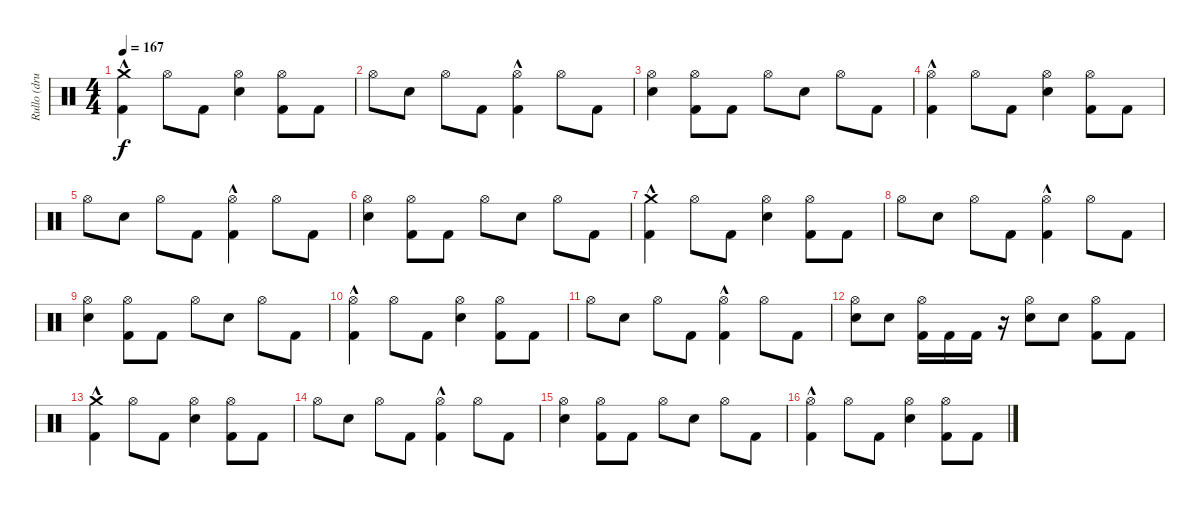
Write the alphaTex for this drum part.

\track ("Rullo (drums)" "Rullo (dru") {instrument percussion}
\staff {score}
\articulation defaults
\ts (4 4)
\tempo 167
\clef neutral
\ks c
("Crash medium (hit)" "Kick (hit) 2"{hac}).4{dy f} "Hi-Hat (open)".8 "Kick (hit) 2".8 ("Hi-Hat (open)" "Electric Snare (hit)").4 ("Hi-Hat (open)" "Kick (hit) 2").8 "Kick (hit) 2".8 |
"Hi-Hat (open)".8 "Electric Snare (hit)".8 "Hi-Hat (open)".8 "Kick (hit) 2".8 ("Hi-Hat (open)" "Kick (hit) 2"{hac}).4 "Hi-Hat (open)".8 "Kick (hit) 2".8 |
("Hi-Hat (open)" "Electric Snare (hit)").4 ("Hi-Hat (open)" "Kick (hit) 2").8 "Kick (hit) 2".8 "Hi-Hat (open)".8 "Electric Snare (hit)".8 "Hi-Hat (open)".8 "Kick (hit) 2".8 |
("Hi-Hat (open)" "Kick (hit) 2"{hac}).4 "Hi-Hat (open)".8 "Kick (hit) 2".8 ("Hi-Hat (open)" "Electric Snare (hit)").4 ("Hi-Hat (open)" "Kick (hit) 2").8 "Kick (hit) 2".8 |
"Hi-Hat (open)".8 "Electric Snare (hit)".8 "Hi-Hat (open)".8 "Kick (hit) 2".8 ("Hi-Hat (open)" "Kick (hit) 2"{hac}).4 "Hi-Hat (open)".8 "Kick (hit) 2".8 |
("Hi-Hat (open)" "Electric Snare (hit)").4 ("Hi-Hat (open)" "Kick (hit) 2").8 "Kick (hit) 2".8 "Hi-Hat (open)".8 "Electric Snare (hit)".8 "Hi-Hat (open)".8 "Kick (hit) 2".8 |
("Crash medium (hit)" "Kick (hit) 2"{hac}).4 "Hi-Hat (open)".8 "Kick (hit) 2".8 ("Hi-Hat (open)" "Electric Snare (hit)").4 ("Hi-Hat (open)" "Kick (hit) 2").8 "Kick (hit) 2".8 |
"Hi-Hat (open)".8 "Electric Snare (hit)".8 "Hi-Hat (open)".8 "Kick (hit) 2".8 ("Hi-Hat (open)" "Kick (hit) 2"{hac}).4 "Hi-Hat (open)".8 "Kick (hit) 2".8 |
("Hi-Hat (open)" "Electric Snare (hit)").4 ("Hi-Hat (open)" "Kick (hit) 2").8 "Kick (hit) 2".8 "Hi-Hat (open)".8 "Electric Snare (hit)".8 "Hi-Hat (open)".8 "Kick (hit) 2".8 |
("Hi-Hat (open)" "Kick (hit) 2"{hac}).4 "Hi-Hat (open)".8 "Kick (hit) 2".8 ("Hi-Hat (open)" "Electric Snare (hit)").4 ("Hi-Hat (open)" "Kick (hit) 2").8 "Kick (hit) 2".8 |
"Hi-Hat (open)".8 "Electric Snare (hit)".8 "Hi-Hat (open)".8 "Kick (hit) 2".8 ("Hi-Hat (open)" "Kick (hit) 2"{hac}).4 "Hi-Hat (open)".8 "Kick (hit) 2".8 |
("Hi-Hat (open)" "Electric Snare (hit)").8 "Electric Snare (hit)".8 ("Kick (hit) 2" "Hi-Hat (open)").16 "Kick (hit) 2".16 "Kick (hit) 2".16 r.16 ("Electric Snare (hit)" "Hi-Hat (open)").8 "Electric Snare (hit)".8 ("Kick (hit) 2" "Hi-Hat (open)").8 "Kick (hit) 2".8 |
("Crash medium (hit)" "Kick (hit) 2"{hac}).4 "Hi-Hat (open)".8 "Kick (hit) 2".8 ("Hi-Hat (open)" "Electric Snare (hit)").4 ("Hi-Hat (open)" "Kick (hit) 2").8 "Kick (hit) 2".8 |
"Hi-Hat (open)".8 "Electric Snare (hit)".8 "Hi-Hat (open)".8 "Kick (hit) 2".8 ("Hi-Hat (open)" "Kick (hit) 2"{hac}).4 "Hi-Hat (open)".8 "Kick (hit) 2".8 |
("Hi-Hat (open)" "Electric Snare (hit)").4 ("Hi-Hat (open)" "Kick (hit) 2").8 "Kick (hit) 2".8 "Hi-Hat (open)".8 "Electric Snare (hit)".8 "Hi-Hat (open)".8 "Kick (hit) 2".8 |
("Hi-Hat (open)" "Kick (hit) 2"{hac}).4 "Hi-Hat (open)".8 "Kick (hit) 2".8 ("Hi-Hat (open)" "Electric Snare (hit)").4 ("Hi-Hat (open)" "Kick (hit) 2").8 "Kick (hit) 2".8
